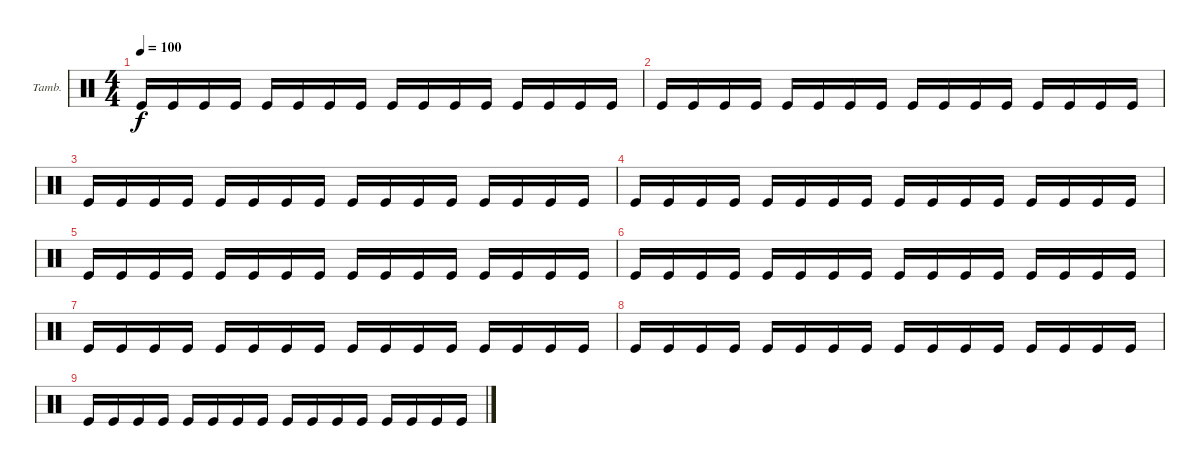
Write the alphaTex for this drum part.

\bracketExtendMode groupsimilarinstruments
\firstSystemTrackNameOrientation horizontal
\otherSystemsTrackNameOrientation horizontal
\track ("Tambourine" "Tamb.") {instrument percussion}
\staff {score}
\articulation defaults
\ts (4 4)
\tempo 100
\clef neutral
\ks c "Kick (hit)".16{dy f} "Kick (hit)".16 "Kick (hit)".16 "Kick (hit)".16 "Kick (hit)".16 "Kick (hit)".16 "Kick (hit)".16 "Kick (hit)".16 "Kick (hit)".16 "Kick (hit)".16 "Kick (hit)".16 "Kick (hit)".16 "Kick (hit)".16 "Kick (hit)".16 "Kick (hit)".16 "Kick (hit)".16
|
"Kick (hit)".16 "Kick (hit)".16 "Kick (hit)".16 "Kick (hit)".16 "Kick (hit)".16 "Kick (hit)".16 "Kick (hit)".16 "Kick (hit)".16 "Kick (hit)".16 "Kick (hit)".16 "Kick (hit)".16 "Kick (hit)".16 "Kick (hit)".16 "Kick (hit)".16 "Kick (hit)".16 "Kick (hit)".16 |
"Kick (hit)".16 "Kick (hit)".16 "Kick (hit)".16 "Kick (hit)".16 "Kick (hit)".16 "Kick (hit)".16 "Kick (hit)".16 "Kick (hit)".16 "Kick (hit)".16 "Kick (hit)".16 "Kick (hit)".16 "Kick (hit)".16 "Kick (hit)".16 "Kick (hit)".16 "Kick (hit)".16 "Kick (hit)".16 |
"Kick (hit)".16 "Kick (hit)".16 "Kick (hit)".16 "Kick (hit)".16 "Kick (hit)".16 "Kick (hit)".16 "Kick (hit)".16 "Kick (hit)".16 "Kick (hit)".16 "Kick (hit)".16 "Kick (hit)".16 "Kick (hit)".16 "Kick (hit)".16 "Kick (hit)".16 "Kick (hit)".16 "Kick (hit)".16 |
"Kick (hit)".16 "Kick (hit)".16 "Kick (hit)".16 "Kick (hit)".16 "Kick (hit)".16 "Kick (hit)".16 "Kick (hit)".16 "Kick (hit)".16 "Kick (hit)".16 "Kick (hit)".16 "Kick (hit)".16 "Kick (hit)".16 "Kick (hit)".16 "Kick (hit)".16 "Kick (hit)".16 "Kick (hit)".16 |
"Kick (hit)".16 "Kick (hit)".16 "Kick (hit)".16 "Kick (hit)".16 "Kick (hit)".16 "Kick (hit)".16 "Kick (hit)".16 "Kick (hit)".16 "Kick (hit)".16 "Kick (hit)".16 "Kick (hit)".16 "Kick (hit)".16 "Kick (hit)".16 "Kick (hit)".16 "Kick (hit)".16 "Kick (hit)".16 |
"Kick (hit)".16 "Kick (hit)".16 "Kick (hit)".16 "Kick (hit)".16 "Kick (hit)".16 "Kick (hit)".16 "Kick (hit)".16 "Kick (hit)".16 "Kick (hit)".16 "Kick (hit)".16 "Kick (hit)".16 "Kick (hit)".16 "Kick (hit)".16 "Kick (hit)".16 "Kick (hit)".16 "Kick (hit)".16 |
"Kick (hit)".16 "Kick (hit)".16 "Kick (hit)".16 "Kick (hit)".16 "Kick (hit)".16 "Kick (hit)".16 "Kick (hit)".16 "Kick (hit)".16 "Kick (hit)".16 "Kick (hit)".16 "Kick (hit)".16 "Kick (hit)".16 "Kick (hit)".16 "Kick (hit)".16 "Kick (hit)".16 "Kick (hit)".16 |
"Kick (hit)".16 "Kick (hit)".16 "Kick (hit)".16 "Kick (hit)".16 "Kick (hit)".16 "Kick (hit)".16 "Kick (hit)".16 "Kick (hit)".16 "Kick (hit)".16 "Kick (hit)".16 "Kick (hit)".16 "Kick (hit)".16 "Kick (hit)".16 "Kick (hit)".16 "Kick (hit)".16 "Kick (hit)".16
